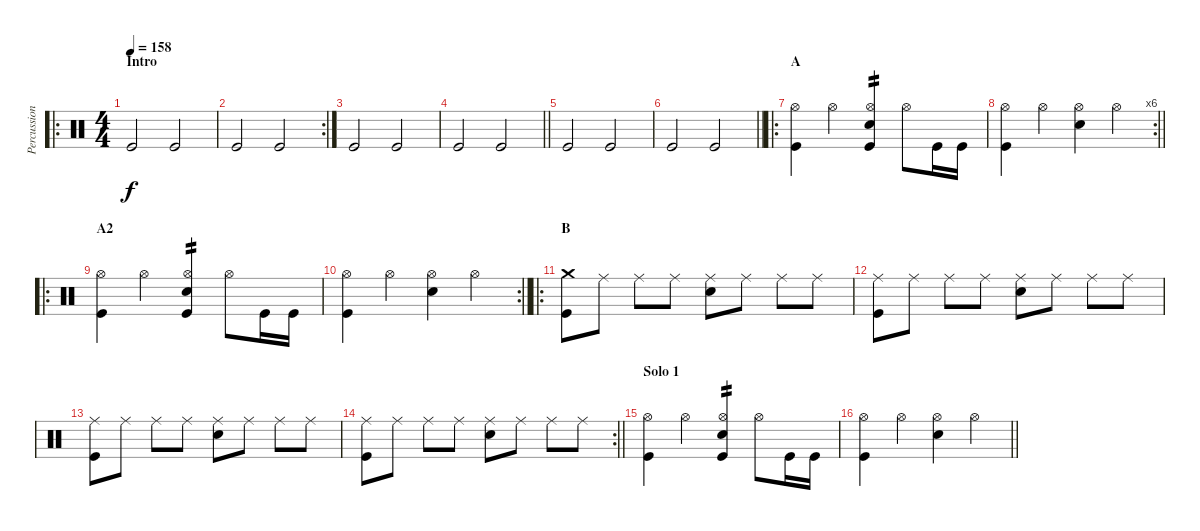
\track ("Percussion" "Percussion") {instrument percussion}
\staff {score}
\articulation defaults
\ro
\ts (4 4)
\section ("" "Intro")
\tempo 158
\clef neutral
\ks c "Kick (hit)".2{dy f} "Kick (hit)".2
|
\rc 2 "Kick (hit)".2 "Kick (hit)".2
|
"Kick (hit)".2 "Kick (hit)".2 |
\barLineRight lightlight "Kick (hit)".2 "Kick (hit)".2
|
"Kick (hit)".2 "Kick (hit)".2 |
\barLineRight lightlight "Kick (hit)".2 "Kick (hit)".2
|
\ro
\section ("" "A")
("Hi-Hat (open)" "Kick (hit)").4 "Hi-Hat (open)".4 ("Hi-Hat (open)" "Snare (hit) 2" "Kick (hit)").4{tp 2} "Hi-Hat (open)".8 "Kick (hit)".16 "Kick (hit)".16 |
\rc 6
\barLineRight lightlight
("Hi-Hat (open)" "Kick (hit)").4 "Hi-Hat (open)".4 ("Hi-Hat (open)" "Snare (hit) 2").4 "Hi-Hat (open)".4 |
\ro
\section ("" "A2")
("Hi-Hat (open)" "Kick (hit)").4 "Hi-Hat (open)".4 ("Hi-Hat (open)" "Snare (hit) 2" "Kick (hit)").4{tp 2} "Hi-Hat (open)".8 "Kick (hit)".16 "Kick (hit)".16 |
\rc 2
\barLineRight lightlight
("Hi-Hat (open)" "Kick (hit)").4 "Hi-Hat (open)".4 ("Hi-Hat (open)" "Snare (hit) 2").4 "Hi-Hat (open)".4 |
\ro
\section ("" "B")
("Crash medium (hit)" "Kick (hit)").8 "Ride (middle)".8 "Ride (middle)".8 "Ride (middle)".8 ("Ride (middle)" "Snare (hit) 2").8 "Ride (middle)".8 "Ride (middle)".8 "Ride (middle)".8 |
("Ride (middle)" "Kick (hit)").8 "Ride (middle)".8 "Ride (middle)".8 "Ride (middle)".8 ("Ride (middle)" "Snare (hit) 2").8 "Ride (middle)".8 "Ride (middle)".8 "Ride (middle)".8 |
("Ride (middle)" "Kick (hit)").8 "Ride (middle)".8 "Ride (middle)".8 "Ride (middle)".8 ("Ride (middle)" "Snare (hit) 2").8 "Ride (middle)".8 "Ride (middle)".8 "Ride (middle)".8 |
\rc 2
\barLineRight lightlight
("Ride (middle)" "Kick (hit)").8 "Ride (middle)".8 "Ride (middle)".8 "Ride (middle)".8 ("Ride (middle)" "Snare (hit) 2").8 "Ride (middle)".8 "Ride (middle)".8 "Ride (middle)".8 |
\section ("" "Solo 1")
("Hi-Hat (open)" "Kick (hit)").4 "Hi-Hat (open)".4 ("Hi-Hat (open)" "Snare (hit) 2" "Kick (hit)").4{tp 2} "Hi-Hat (open)".8 "Kick (hit)".16 "Kick (hit)".16 |
\barLineRight lightlight
("Hi-Hat (open)" "Kick (hit)").4 "Hi-Hat (open)".4 ("Hi-Hat (open)" "Snare (hit) 2").4 "Hi-Hat (open)".4
